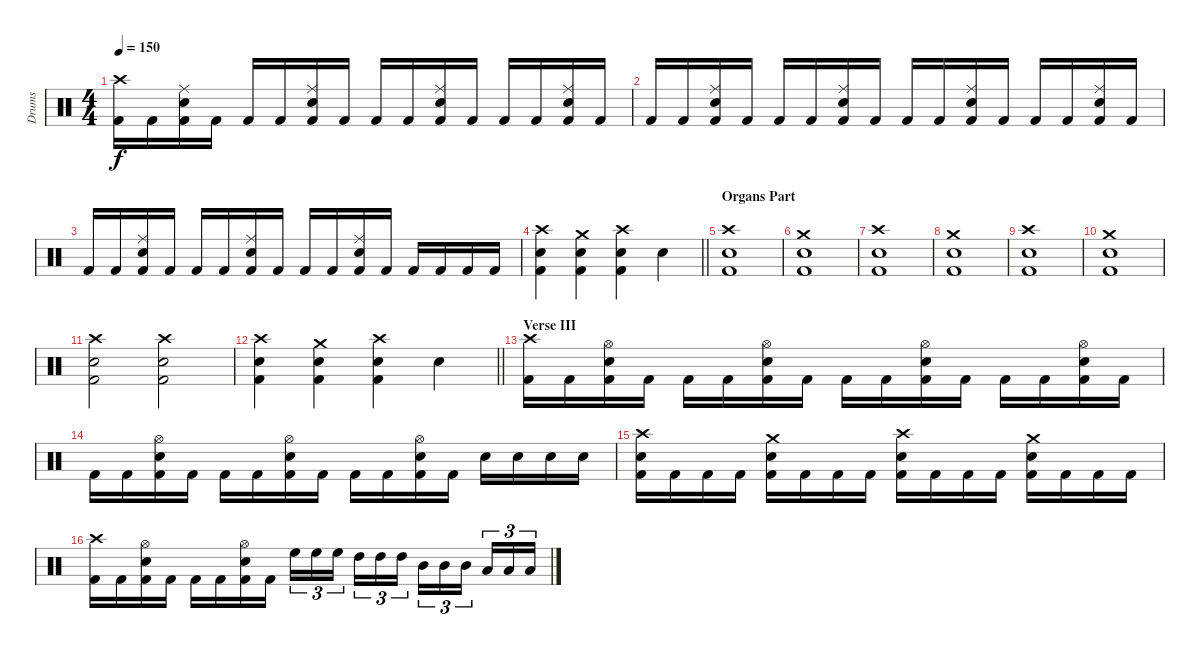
\track ("Drums" "Drums") {instrument percussion}
\staff {score}
\articulation defaults
\ts (4 4)
\tempo 150
\clef neutral
\ks c
("Crash high (hit)" "Kick (hit) 2").16{dy f} "Kick (hit) 2".16 ("Ride (middle)" "Snare (hit) 2" "Kick (hit) 2").16 "Kick (hit) 2".16 "Kick (hit) 2".16 "Kick (hit) 2".16 ("Ride (middle)" "Snare (hit) 2" "Kick (hit) 2").16 "Kick (hit) 2".16 "Kick (hit) 2".16 "Kick (hit) 2".16 ("Ride (middle)" "Snare (hit) 2" "Kick (hit) 2").16 "Kick (hit) 2".16 "Kick (hit) 2".16 "Kick (hit) 2".16 ("Ride (middle)" "Snare (hit) 2" "Kick (hit) 2").16 "Kick (hit) 2".16 |
"Kick (hit) 2".16 "Kick (hit) 2".16 ("Ride (middle)" "Snare (hit) 2" "Kick (hit) 2").16 "Kick (hit) 2".16 "Kick (hit) 2".16 "Kick (hit) 2".16 ("Ride (middle)" "Snare (hit) 2" "Kick (hit) 2").16 "Kick (hit) 2".16 "Kick (hit) 2".16 "Kick (hit) 2".16 ("Ride (middle)" "Snare (hit) 2" "Kick (hit) 2").16 "Kick (hit) 2".16 "Kick (hit) 2".16 "Kick (hit) 2".16 ("Ride (middle)" "Snare (hit) 2" "Kick (hit) 2").16 "Kick (hit) 2".16 |
"Kick (hit) 2".16 "Kick (hit) 2".16 ("Ride (middle)" "Snare (hit) 2" "Kick (hit) 2").16 "Kick (hit) 2".16 "Kick (hit) 2".16 "Kick (hit) 2".16 ("Ride (middle)" "Snare (hit) 2" "Kick (hit) 2").16 "Kick (hit) 2".16 "Kick (hit) 2".16 "Kick (hit) 2".16 ("Ride (middle)" "Snare (hit) 2" "Kick (hit) 2").16 "Kick (hit) 2".16 "Kick (hit) 2".16 "Kick (hit) 2".16 "Kick (hit) 2".16 "Kick (hit) 2".16 |
\barLineRight lightlight
("Crash high (hit)" "Snare (hit) 2" "Kick (hit) 2").4 ("Crash medium (hit)" "Snare (hit) 2" "Kick (hit) 2").4 ("Crash high (hit)" "Snare (hit) 2" "Kick (hit) 2").4 "Snare (hit) 2".4 |
\section ("" "Organs Part")
("Crash high (hit)" "Snare (hit) 2" "Kick (hit) 2").1 |
("Crash medium (hit)" "Snare (hit) 2" "Kick (hit) 2").1 |
("Crash high (hit)" "Snare (hit) 2" "Kick (hit) 2").1 |
("Crash medium (hit)" "Snare (hit) 2" "Kick (hit) 2").1 |
("Crash high (hit)" "Snare (hit) 2" "Kick (hit) 2").1 |
("Crash medium (hit)" "Snare (hit) 2" "Kick (hit) 2").1 |
("Crash high (hit)" "Snare (hit) 2" "Kick (hit) 2").2 ("Crash high (hit)" "Snare (hit) 2" "Kick (hit) 2").2 |
\barLineRight lightlight
("Crash high (hit)" "Snare (hit) 2" "Kick (hit) 2").4 ("Crash medium (hit)" "Snare (hit) 2" "Kick (hit) 2").4 ("Crash high (hit)" "Snare (hit) 2" "Kick (hit) 2").4 "Snare (hit) 2".4 |
\section ("" "Verse III")
("Crash high (hit)" "Kick (hit) 2").16 "Kick (hit) 2".16 ("Hi-Hat (open)" "Snare (hit) 2" "Kick (hit) 2").16 "Kick (hit) 2".16 "Kick (hit) 2".16 "Kick (hit) 2".16 ("Hi-Hat (open)" "Snare (hit) 2" "Kick (hit) 2").16 "Kick (hit) 2".16 "Kick (hit) 2".16 "Kick (hit) 2".16 ("Hi-Hat (open)" "Snare (hit) 2" "Kick (hit) 2").16 "Kick (hit) 2".16 "Kick (hit) 2".16 "Kick (hit) 2".16 ("Hi-Hat (open)" "Snare (hit) 2" "Kick (hit) 2").16 "Kick (hit) 2".16 |
"Kick (hit) 2".16 "Kick (hit) 2".16 ("Hi-Hat (open)" "Snare (hit) 2" "Kick (hit) 2").16 "Kick (hit) 2".16 "Kick (hit) 2".16 "Kick (hit) 2".16 ("Hi-Hat (open)" "Snare (hit) 2" "Kick (hit) 2").16 "Kick (hit) 2".16 "Kick (hit) 2".16 "Kick (hit) 2".16 ("Hi-Hat (open)" "Snare (hit) 2" "Kick (hit) 2").16 "Kick (hit) 2".16 "Snare (hit) 2".16 "Snare (hit) 2".16 "Snare (hit) 2".16 "Snare (hit) 2".16 |
("Crash high (hit)" "Snare (hit) 2" "Kick (hit) 2").16 "Kick (hit) 2".16 "Kick (hit) 2".16 "Kick (hit) 2".16 ("Crash medium (hit)" "Snare (hit) 2" "Kick (hit) 2").16 "Kick (hit) 2".16 "Kick (hit) 2".16 "Kick (hit) 2".16 ("Crash high (hit)" "Snare (hit) 2" "Kick (hit) 2").16 "Kick (hit) 2".16 "Kick (hit) 2".16 "Kick (hit) 2".16 ("Crash medium (hit)" "Snare (hit) 2" "Kick (hit) 2").16 "Kick (hit) 2".16 "Kick (hit) 2".16 "Kick (hit) 2".16 |
("Crash high (hit)" "Kick (hit) 2").16 "Kick (hit) 2".16 ("Hi-Hat (open)" "Snare (hit) 2" "Kick (hit) 2").16 "Kick (hit) 2".16 "Kick (hit) 2".16 "Kick (hit) 2".16 ("Hi-Hat (open)" "Snare (hit) 2" "Kick (hit) 2").16 "Kick (hit) 2".16 "High Floor Tom (hit)".16{tu (3 2)} "High Floor Tom (hit)".16{tu (3 2)} "High Floor Tom (hit)".16{tu (3 2) beam splitsecondary} "High Tom (hit)".16{tu (3 2)} "High Tom (hit)".16{tu (3 2)} "High Tom (hit)".16{tu (3 2)} "Mid Tom (hit)".16{tu (3 2)} "Mid Tom (hit)".16{tu (3 2)} "Mid Tom (hit)".16{tu (3 2) beam splitsecondary} "Low Tom (hit)".16{tu (3 2)} "Low Tom (hit)".16{tu (3 2)} "Low Tom (hit)".16{tu (3 2)}
